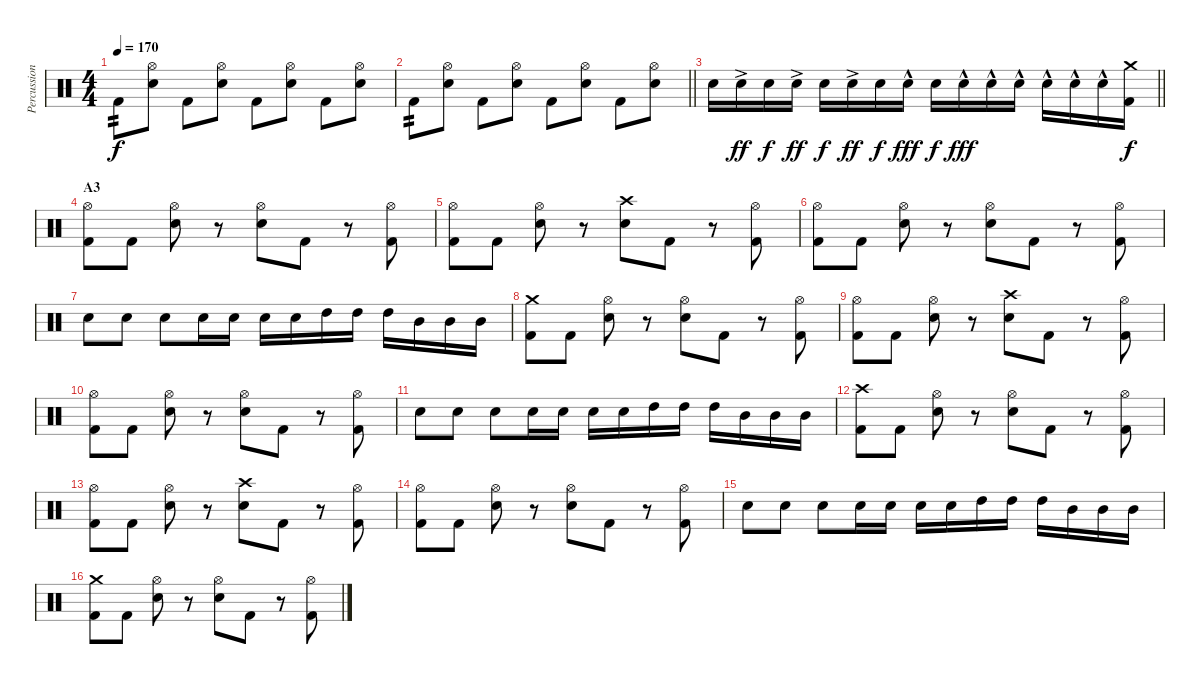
\track ("Percussion" "Percussion") {instrument percussion}
\staff {score}
\articulation defaults
\ts (4 4)
\tempo 170
\clef neutral
\ks c "Kick (hit) 2".8{tp 2 dy f}
("Hi-Hat (open)" "Electric Snare (hit)").8 "Kick (hit) 2".8 ("Hi-Hat (open)" "Electric Snare (hit)").8 "Kick (hit) 2".8 ("Hi-Hat (open)" "Electric Snare (hit)").8 "Kick (hit) 2".8 ("Hi-Hat (open)" "Electric Snare (hit)").8 |
\barLineRight lightlight "Kick (hit) 2".8{tp 2}
("Hi-Hat (open)" "Electric Snare (hit)").8 "Kick (hit) 2".8 ("Hi-Hat (open)" "Electric Snare (hit)").8 "Kick (hit) 2".8 ("Hi-Hat (open)" "Electric Snare (hit)").8 "Kick (hit) 2".8 ("Hi-Hat (open)" "Electric Snare (hit)").8 |
\barLineRight lightlight "Electric Snare (hit)".16 "Electric Snare (hit)"{ac}.16{dy ff} "Electric Snare (hit)".16{dy f} "Electric Snare (hit)"{ac}.16{dy ff} "Electric Snare (hit)".16{dy f} "Electric Snare (hit)"{ac}.16{dy ff} "Electric Snare (hit)".16{dy f} "Electric Snare (hit)"{hac}.16{dy fff} "Electric Snare (hit)".16{dy f} "Electric Snare (hit)"{hac}.16{dy fff} "Electric Snare (hit)"{hac}.16 "Electric Snare (hit)"{hac}.16 "Electric Snare (hit)"{hac}.16 "Electric Snare (hit)"{hac}.16 "Electric Snare (hit)"{hac}.16
("Crash medium (hit)" "Kick (hit) 2").16{dy f} |
\section ("" "A3")
("Hi-Hat (open)" "Kick (hit) 2").8 "Kick (hit) 2".8 ("Hi-Hat (open)" "Electric Snare (hit)").8 r.8 ("Hi-Hat (open)" "Electric Snare (hit)").8 "Kick (hit) 2".8 r.8 ("Hi-Hat (open)" "Kick (hit) 2").8 |
("Hi-Hat (open)" "Kick (hit) 2").8 "Kick (hit) 2".8 ("Hi-Hat (open)" "Electric Snare (hit)").8 r.8 ("Crash high (hit)" "Electric Snare (hit)").8 "Kick (hit) 2".8 r.8 ("Hi-Hat (open)" "Kick (hit) 2").8 |
("Hi-Hat (open)" "Kick (hit) 2").8 "Kick (hit) 2".8 ("Hi-Hat (open)" "Electric Snare (hit)").8 r.8 ("Hi-Hat (open)" "Electric Snare (hit)").8 "Kick (hit) 2".8 r.8 ("Hi-Hat (open)" "Kick (hit) 2").8 |
"Electric Snare (hit)".8 "Electric Snare (hit)".8 "Electric Snare (hit)".8 "Electric Snare (hit)".16 "Electric Snare (hit)".16 "Electric Snare (hit)".16 "Electric Snare (hit)".16 "High Tom (hit)".16 "High Tom (hit)".16 "High Tom (hit)".16 "Mid Tom (hit)".16 "Mid Tom (hit)".16 "Mid Tom (hit)".16 |
("Crash medium (hit)" "Kick (hit) 2").8 "Kick (hit) 2".8 ("Hi-Hat (open)" "Electric Snare (hit)").8 r.8 ("Hi-Hat (open)" "Electric Snare (hit)").8 "Kick (hit) 2".8 r.8 ("Hi-Hat (open)" "Kick (hit) 2").8 |
("Hi-Hat (open)" "Kick (hit) 2").8 "Kick (hit) 2".8 ("Hi-Hat (open)" "Electric Snare (hit)").8 r.8 ("Crash high (hit)" "Electric Snare (hit)").8 "Kick (hit) 2".8 r.8 ("Hi-Hat (open)" "Kick (hit) 2").8 |
("Hi-Hat (open)" "Kick (hit) 2").8 "Kick (hit) 2".8 ("Hi-Hat (open)" "Electric Snare (hit)").8 r.8 ("Hi-Hat (open)" "Electric Snare (hit)").8 "Kick (hit) 2".8 r.8 ("Hi-Hat (open)" "Kick (hit) 2").8 |
"Electric Snare (hit)".8 "Electric Snare (hit)".8 "Electric Snare (hit)".8 "Electric Snare (hit)".16 "Electric Snare (hit)".16 "Electric Snare (hit)".16 "Electric Snare (hit)".16 "High Tom (hit)".16 "High Tom (hit)".16 "High Tom (hit)".16 "Mid Tom (hit)".16 "Mid Tom (hit)".16 "Mid Tom (hit)".16 |
("Crash high (hit)" "Kick (hit) 2").8 "Kick (hit) 2".8 ("Hi-Hat (open)" "Electric Snare (hit)").8 r.8 ("Hi-Hat (open)" "Electric Snare (hit)").8 "Kick (hit) 2".8 r.8 ("Hi-Hat (open)" "Kick (hit) 2").8 |
("Hi-Hat (open)" "Kick (hit) 2").8 "Kick (hit) 2".8 ("Hi-Hat (open)" "Electric Snare (hit)").8 r.8 ("Crash high (hit)" "Electric Snare (hit)").8 "Kick (hit) 2".8 r.8 ("Hi-Hat (open)" "Kick (hit) 2").8 |
("Hi-Hat (open)" "Kick (hit) 2").8 "Kick (hit) 2".8 ("Hi-Hat (open)" "Electric Snare (hit)").8 r.8 ("Hi-Hat (open)" "Electric Snare (hit)").8 "Kick (hit) 2".8 r.8 ("Hi-Hat (open)" "Kick (hit) 2").8 |
"Electric Snare (hit)".8 "Electric Snare (hit)".8 "Electric Snare (hit)".8 "Electric Snare (hit)".16 "Electric Snare (hit)".16 "Electric Snare (hit)".16 "Electric Snare (hit)".16 "High Tom (hit)".16 "High Tom (hit)".16 "High Tom (hit)".16 "Mid Tom (hit)".16 "Mid Tom (hit)".16 "Mid Tom (hit)".16 |
("Crash medium (hit)" "Kick (hit) 2").8 "Kick (hit) 2".8 ("Hi-Hat (open)" "Electric Snare (hit)").8 r.8 ("Hi-Hat (open)" "Electric Snare (hit)").8 "Kick (hit) 2".8 r.8 ("Hi-Hat (open)" "Kick (hit) 2").8
